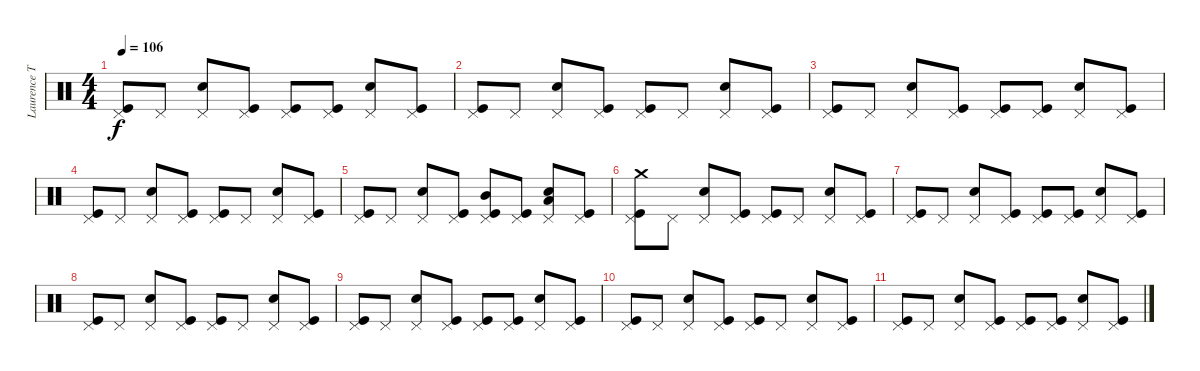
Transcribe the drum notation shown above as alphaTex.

\track ("Laurence Tolhurst (drums)" "Laurence T") {instrument percussion}
\staff {score}
\articulation defaults
\ts (4 4)
\tempo 106
\clef neutral
\ks c
("Pedal Hi-Hat (hit)" "Kick (hit)").8{dy f} "Pedal Hi-Hat (hit)".8 ("Pedal Hi-Hat (hit)" "Snare (hit) 2").8 ("Pedal Hi-Hat (hit)" "Kick (hit)").8 ("Pedal Hi-Hat (hit)" "Kick (hit)").8 ("Pedal Hi-Hat (hit)" "Kick (hit)").8 ("Pedal Hi-Hat (hit)" "Snare (hit) 2").8 ("Pedal Hi-Hat (hit)" "Kick (hit)").8 |
("Pedal Hi-Hat (hit)" "Kick (hit)").8 "Pedal Hi-Hat (hit)".8 ("Pedal Hi-Hat (hit)" "Snare (hit) 2").8 ("Pedal Hi-Hat (hit)" "Kick (hit)").8 ("Pedal Hi-Hat (hit)" "Kick (hit)").8 "Pedal Hi-Hat (hit)".8 ("Pedal Hi-Hat (hit)" "Snare (hit) 2").8 ("Pedal Hi-Hat (hit)" "Kick (hit)").8 |
("Pedal Hi-Hat (hit)" "Kick (hit)").8 "Pedal Hi-Hat (hit)".8 ("Pedal Hi-Hat (hit)" "Snare (hit) 2").8 ("Pedal Hi-Hat (hit)" "Kick (hit)").8 ("Pedal Hi-Hat (hit)" "Kick (hit)").8 ("Pedal Hi-Hat (hit)" "Kick (hit)").8 ("Pedal Hi-Hat (hit)" "Snare (hit) 2").8 ("Pedal Hi-Hat (hit)" "Kick (hit)").8 |
("Pedal Hi-Hat (hit)" "Kick (hit)").8 "Pedal Hi-Hat (hit)".8 ("Pedal Hi-Hat (hit)" "Snare (hit) 2").8 ("Pedal Hi-Hat (hit)" "Kick (hit)").8 ("Pedal Hi-Hat (hit)" "Kick (hit)").8 "Pedal Hi-Hat (hit)".8 ("Pedal Hi-Hat (hit)" "Snare (hit) 2").8 ("Pedal Hi-Hat (hit)" "Kick (hit)").8 |
("Pedal Hi-Hat (hit)" "Kick (hit)").8 "Pedal Hi-Hat (hit)".8 ("Pedal Hi-Hat (hit)" "Snare (hit) 2").8 ("Pedal Hi-Hat (hit)" "Kick (hit)").8 ("Mid Tom (hit)" "Pedal Hi-Hat (hit)" "Kick (hit)").8 ("Pedal Hi-Hat (hit)" "Kick (hit)").8 ("Low Tom (hit)" "Pedal Hi-Hat (hit)" "Snare (hit) 2").8 ("Pedal Hi-Hat (hit)" "Kick (hit)").8 |
("Crash medium (hit)" "Pedal Hi-Hat (hit)" "Kick (hit)").8 "Pedal Hi-Hat (hit)".8 ("Pedal Hi-Hat (hit)" "Snare (hit) 2").8 ("Pedal Hi-Hat (hit)" "Kick (hit)").8 ("Pedal Hi-Hat (hit)" "Kick (hit)").8 "Pedal Hi-Hat (hit)".8 ("Pedal Hi-Hat (hit)" "Snare (hit) 2").8 ("Pedal Hi-Hat (hit)" "Kick (hit)").8 |
("Pedal Hi-Hat (hit)" "Kick (hit)").8 "Pedal Hi-Hat (hit)".8 ("Pedal Hi-Hat (hit)" "Snare (hit) 2").8 ("Pedal Hi-Hat (hit)" "Kick (hit)").8 ("Pedal Hi-Hat (hit)" "Kick (hit)").8 ("Pedal Hi-Hat (hit)" "Kick (hit)").8 ("Pedal Hi-Hat (hit)" "Snare (hit) 2").8 ("Pedal Hi-Hat (hit)" "Kick (hit)").8 |
("Pedal Hi-Hat (hit)" "Kick (hit)").8 "Pedal Hi-Hat (hit)".8 ("Pedal Hi-Hat (hit)" "Snare (hit) 2").8 ("Pedal Hi-Hat (hit)" "Kick (hit)").8 ("Pedal Hi-Hat (hit)" "Kick (hit)").8 "Pedal Hi-Hat (hit)".8 ("Pedal Hi-Hat (hit)" "Snare (hit) 2").8 ("Pedal Hi-Hat (hit)" "Kick (hit)").8 |
("Pedal Hi-Hat (hit)" "Kick (hit)").8 "Pedal Hi-Hat (hit)".8 ("Pedal Hi-Hat (hit)" "Snare (hit) 2").8 ("Pedal Hi-Hat (hit)" "Kick (hit)").8 ("Pedal Hi-Hat (hit)" "Kick (hit)").8 ("Pedal Hi-Hat (hit)" "Kick (hit)").8 ("Pedal Hi-Hat (hit)" "Snare (hit) 2").8 ("Pedal Hi-Hat (hit)" "Kick (hit)").8 |
("Pedal Hi-Hat (hit)" "Kick (hit)").8{volume 0} "Pedal Hi-Hat (hit)".8 ("Pedal Hi-Hat (hit)" "Snare (hit) 2").8 ("Pedal Hi-Hat (hit)" "Kick (hit)").8 ("Pedal Hi-Hat (hit)" "Kick (hit)").8 "Pedal Hi-Hat (hit)".8 ("Pedal Hi-Hat (hit)" "Snare (hit) 2").8 ("Pedal Hi-Hat (hit)" "Kick (hit)").8 |
("Pedal Hi-Hat (hit)" "Kick (hit)").8 "Pedal Hi-Hat (hit)".8 ("Pedal Hi-Hat (hit)" "Snare (hit) 2").8 ("Pedal Hi-Hat (hit)" "Kick (hit)").8 ("Pedal Hi-Hat (hit)" "Kick (hit)").8 ("Pedal Hi-Hat (hit)" "Kick (hit)").8 ("Pedal Hi-Hat (hit)" "Snare (hit) 2").8 ("Pedal Hi-Hat (hit)" "Kick (hit)").8
